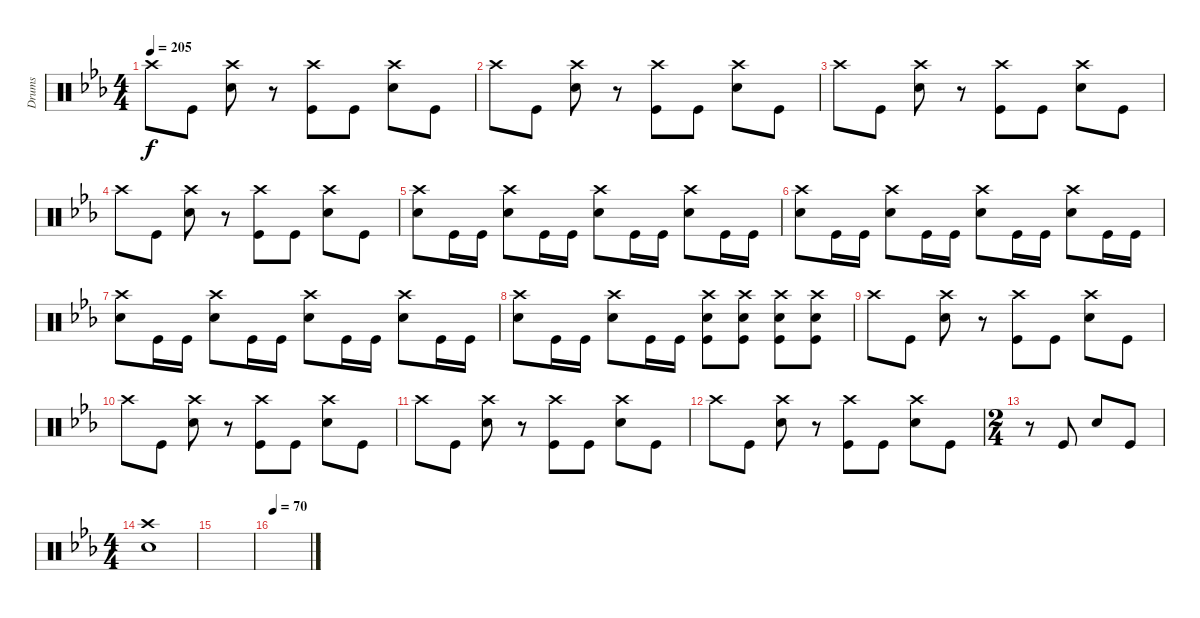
\track ("Drums" "Drums") {instrument percussion}
\staff {score}
\articulation defaults
\ts (4 4)
\tempo 205
\clef neutral
\ks eb "Crash high (hit)".8{dy f} "Kick (hit)".8
("Crash high (hit)" "Snare (hit) 2").8 r.8 ("Crash high (hit)" "Kick (hit)").8 "Kick (hit)".8 ("Crash high (hit)" "Snare (hit) 2").8 "Kick (hit)".8 |
"Crash high (hit)".8 "Kick (hit)".8 ("Crash high (hit)" "Snare (hit) 2").8 r.8 ("Crash high (hit)" "Kick (hit)").8 "Kick (hit)".8 ("Crash high (hit)" "Snare (hit) 2").8 "Kick (hit)".8 |
"Crash high (hit)".8 "Kick (hit)".8 ("Crash high (hit)" "Snare (hit) 2").8 r.8 ("Crash high (hit)" "Kick (hit)").8 "Kick (hit)".8 ("Crash high (hit)" "Snare (hit) 2").8 "Kick (hit)".8 |
"Crash high (hit)".8 "Kick (hit)".8 ("Crash high (hit)" "Snare (hit) 2").8 r.8 ("Crash high (hit)" "Kick (hit)").8 "Kick (hit)".8 ("Crash high (hit)" "Snare (hit) 2").8 "Kick (hit)".8 |
("Crash high (hit)" "Snare (hit) 2").8 "Kick (hit)".16 "Kick (hit)".16 ("Crash high (hit)" "Snare (hit) 2").8 "Kick (hit)".16 "Kick (hit)".16 ("Crash high (hit)" "Snare (hit) 2").8 "Kick (hit)".16 "Kick (hit)".16 ("Crash high (hit)" "Snare (hit) 2").8 "Kick (hit)".16 "Kick (hit)".16 |
("Crash high (hit)" "Snare (hit) 2").8 "Kick (hit)".16 "Kick (hit)".16 ("Crash high (hit)" "Snare (hit) 2").8 "Kick (hit)".16 "Kick (hit)".16 ("Crash high (hit)" "Snare (hit) 2").8 "Kick (hit)".16 "Kick (hit)".16 ("Crash high (hit)" "Snare (hit) 2").8 "Kick (hit)".16 "Kick (hit)".16 |
("Crash high (hit)" "Snare (hit) 2").8 "Kick (hit)".16 "Kick (hit)".16 ("Crash high (hit)" "Snare (hit) 2").8 "Kick (hit)".16 "Kick (hit)".16 ("Crash high (hit)" "Snare (hit) 2").8 "Kick (hit)".16 "Kick (hit)".16 ("Crash high (hit)" "Snare (hit) 2").8 "Kick (hit)".16 "Kick (hit)".16 |
("Crash high (hit)" "Snare (hit) 2").8 "Kick (hit)".16 "Kick (hit)".16 ("Crash high (hit)" "Snare (hit) 2").8 "Kick (hit)".16 "Kick (hit)".16 ("Crash high (hit)" "Snare (hit) 2" "Kick (hit)").8 ("Crash high (hit)" "Snare (hit) 2" "Kick (hit)").8 ("Crash high (hit)" "Snare (hit) 2" "Kick (hit)").8 ("Crash high (hit)" "Snare (hit) 2" "Kick (hit)").8 |
"Crash high (hit)".8 "Kick (hit)".8 ("Crash high (hit)" "Snare (hit) 2").8 r.8 ("Crash high (hit)" "Kick (hit)").8 "Kick (hit)".8 ("Crash high (hit)" "Snare (hit) 2").8 "Kick (hit)".8 |
"Crash high (hit)".8 "Kick (hit)".8 ("Crash high (hit)" "Snare (hit) 2").8 r.8 ("Crash high (hit)" "Kick (hit)").8 "Kick (hit)".8 ("Crash high (hit)" "Snare (hit) 2").8 "Kick (hit)".8 |
"Crash high (hit)".8 "Kick (hit)".8 ("Crash high (hit)" "Snare (hit) 2").8 r.8 ("Crash high (hit)" "Kick (hit)").8 "Kick (hit)".8 ("Crash high (hit)" "Snare (hit) 2").8 "Kick (hit)".8 |
"Crash high (hit)".8 "Kick (hit)".8 ("Crash high (hit)" "Snare (hit) 2").8 r.8 ("Crash high (hit)" "Kick (hit)").8 "Kick (hit)".8 ("Crash high (hit)" "Snare (hit) 2").8 "Kick (hit)".8 |
\ts (2 4)
r.8 "Kick (hit)".8 "Snare (hit) 2".8 "Kick (hit)".8 |
\ts (4 4)
("Crash high (hit)" "Snare (hit) 2").1 |
|
\tempo 70
